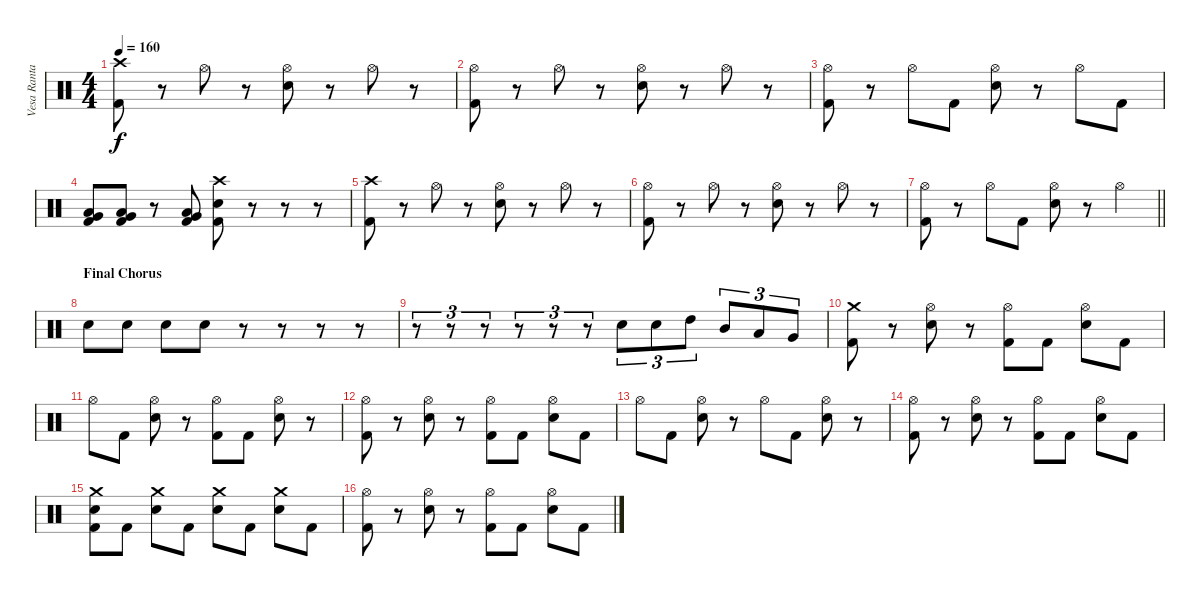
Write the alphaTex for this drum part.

\track ("Vesa Ranta" "Vesa Ranta") {instrument percussion}
\staff {score}
\articulation defaults
\ts (4 4)
\tempo 160
\clef neutral
\ks c
("Crash high (hit)" "Kick (hit) 2").8{dy f} r.8 "Hi-Hat (open)".8 r.8 ("Hi-Hat (open)" "Electric Snare (hit)").8 r.8 "Hi-Hat (open)".8 r.8 |
("Hi-Hat (open)" "Kick (hit) 2").8 r.8 "Hi-Hat (open)".8 r.8 ("Hi-Hat (open)" "Electric Snare (hit)").8 r.8 "Hi-Hat (open)".8 r.8 |
("Hi-Hat (open)" "Kick (hit) 2").8 r.8 "Hi-Hat (open)".8 "Kick (hit) 2".8 ("Hi-Hat (open)" "Electric Snare (hit)").8 r.8 "Hi-Hat (open)".8 "Kick (hit) 2".8 |
("Very Low Tom (hit)" "Low Tom (hit)" "Kick (hit) 2").8 ("Very Low Tom (hit)" "Low Tom (hit)" "Kick (hit) 2").8 r.8 ("Very Low Tom (hit)" "Low Tom (hit)" "Kick (hit) 2").8 ("Crash high (hit)" "Electric Snare (hit)" "Kick (hit) 2").8 r.8 r.8 r.8 |
("Crash high (hit)" "Kick (hit) 2").8 r.8 "Hi-Hat (open)".8 r.8 ("Hi-Hat (open)" "Electric Snare (hit)").8 r.8 "Hi-Hat (open)".8 r.8 |
("Hi-Hat (open)" "Kick (hit) 2").8 r.8 "Hi-Hat (open)".8 r.8 ("Hi-Hat (open)" "Electric Snare (hit)").8 r.8 "Hi-Hat (open)".8 r.8 |
\barLineRight lightlight
("Hi-Hat (open)" "Kick (hit) 2").8 r.8 "Hi-Hat (open)".8 "Kick (hit) 2".8 ("Hi-Hat (open)" "Electric Snare (hit)").8 r.8 "Hi-Hat (open)".4 |
\section ("" "Final Chorus")
"Electric Snare (hit)".8 "Electric Snare (hit)".8 "Electric Snare (hit)".8 "Electric Snare (hit)".8 r.8 r.8 r.8 r.8 |
r.8{tu (3 2)} r.8{tu (3 2)} r.8{tu (3 2)} r.8{tu (3 2)} r.8{tu (3 2)} r.8{tu (3 2)} "Electric Snare (hit)".8{tu (3 2)} "Electric Snare (hit)".8{tu (3 2)} "High Tom (hit)".8{tu (3 2)} "Mid Tom (hit)".8{tu (3 2)} "Low Tom (hit)".8{tu (3 2)} "Very Low Tom (hit)".8{tu (3 2)} |
("Crash medium (hit)" "Kick (hit) 2").8 r.8 ("Hi-Hat (open)" "Electric Snare (hit)").8 r.8 ("Hi-Hat (open)" "Kick (hit) 2").8 "Kick (hit) 2".8 ("Hi-Hat (open)" "Electric Snare (hit)").8 "Kick (hit) 2".8 |
"Hi-Hat (open)".8 "Kick (hit) 2".8 ("Hi-Hat (open)" "Electric Snare (hit)").8 r.8 ("Hi-Hat (open)" "Kick (hit) 2").8 "Kick (hit) 2".8 ("Hi-Hat (open)" "Electric Snare (hit)").8 r.8 |
("Hi-Hat (open)" "Kick (hit) 2").8 r.8 ("Hi-Hat (open)" "Electric Snare (hit)").8 r.8 ("Hi-Hat (open)" "Kick (hit) 2").8 "Kick (hit) 2".8 ("Hi-Hat (open)" "Electric Snare (hit)").8 "Kick (hit) 2".8 |
"Hi-Hat (open)".8 "Kick (hit) 2".8 ("Hi-Hat (open)" "Electric Snare (hit)").8 r.8 "Hi-Hat (open)".8 "Kick (hit) 2".8 ("Hi-Hat (open)" "Electric Snare (hit)").8 r.8 |
("Hi-Hat (open)" "Kick (hit) 2").8 r.8 ("Hi-Hat (open)" "Electric Snare (hit)").8 r.8 ("Hi-Hat (open)" "Kick (hit) 2").8 "Kick (hit) 2".8 ("Hi-Hat (open)" "Electric Snare (hit)").8 "Kick (hit) 2".8 |
("Crash medium (hit)" "Electric Snare (hit)" "Kick (hit) 2").8 "Kick (hit) 2".8 ("Crash medium (hit)" "Electric Snare (hit)").8 "Kick (hit) 2".8 ("Crash medium (hit)" "Electric Snare (hit)").8 "Kick (hit) 2".8 ("Crash medium (hit)" "Electric Snare (hit)").8 "Kick (hit) 2".8 |
("Hi-Hat (open)" "Kick (hit) 2").8 r.8 ("Hi-Hat (open)" "Electric Snare (hit)").8 r.8 ("Hi-Hat (open)" "Kick (hit) 2").8 "Kick (hit) 2".8 ("Hi-Hat (open)" "Electric Snare (hit)").8 "Kick (hit) 2".8
